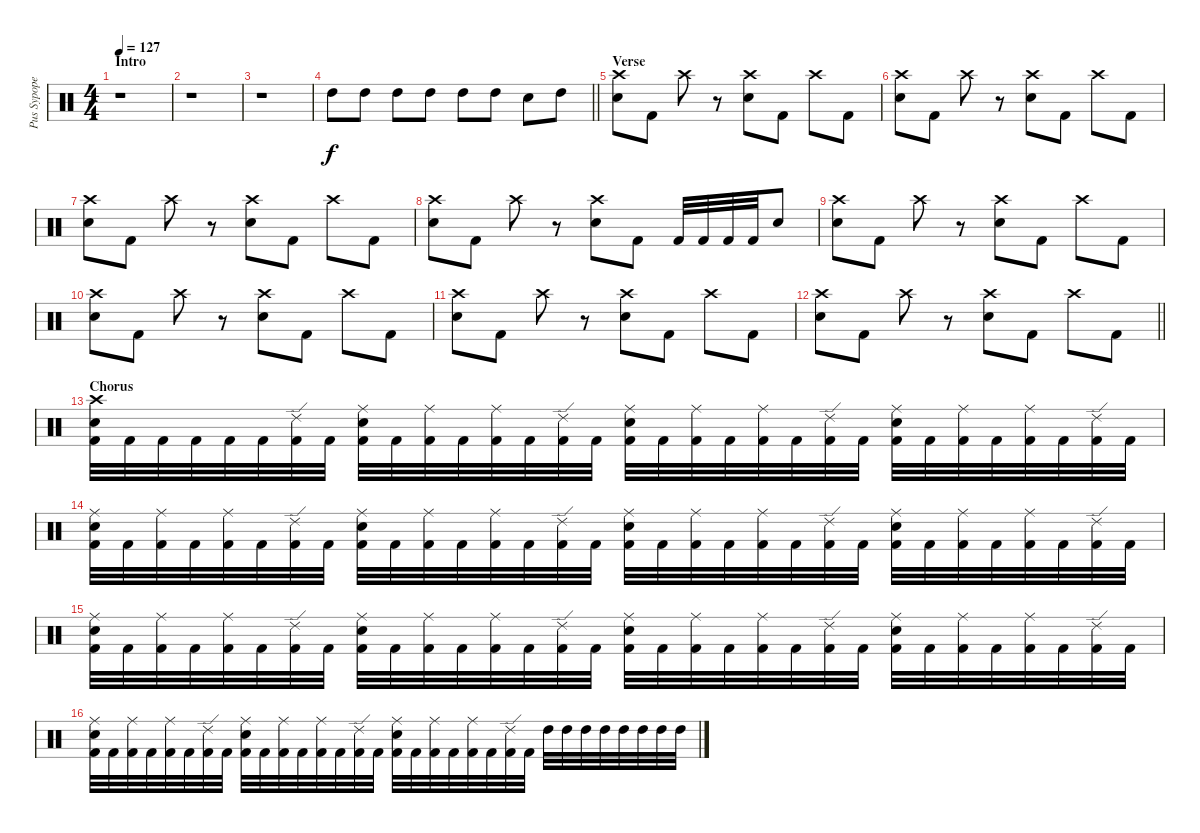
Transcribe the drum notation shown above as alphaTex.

\track ("Pus Sypope" "Pus Sypope") {instrument percussion}
\staff {score}
\articulation defaults
\ts (4 4)
\section ("" "Intro")
\tempo 127
\clef neutral
\ks c
r.1{dy f} |
r.1 |
r.1{volume 0} |
\barLineRight lightlight "High Tom (hit)".8{volume 13} "High Tom (hit)".8 "High Tom (hit)".8 "High Tom (hit)".8 "High Tom (hit)".8 "High Tom (hit)".8 "Snare (hit) 2".8 "High Tom (hit)".8
|
\section ("" "Verse")
("Crash high (hit)" "Electric Snare (hit)").8 "Kick (hit) 2".8 "Crash high (hit)".8 r.8 ("Crash high (hit)" "Electric Snare (hit)").8 "Kick (hit) 2".8 "Crash high (hit)".8 "Kick (hit) 2".8 |
("Crash high (hit)" "Electric Snare (hit)").8 "Kick (hit) 2".8 "Crash high (hit)".8 r.8 ("Crash high (hit)" "Electric Snare (hit)").8 "Kick (hit) 2".8 "Crash high (hit)".8 "Kick (hit) 2".8 |
("Crash high (hit)" "Electric Snare (hit)").8 "Kick (hit) 2".8 "Crash high (hit)".8 r.8 ("Crash high (hit)" "Electric Snare (hit)").8 "Kick (hit) 2".8 "Crash high (hit)".8 "Kick (hit) 2".8 |
("Crash high (hit)" "Electric Snare (hit)").8 "Kick (hit) 2".8 "Crash high (hit)".8 r.8 ("Crash high (hit)" "Electric Snare (hit)").8 "Kick (hit) 2".8 "Kick (hit) 2".32 "Kick (hit) 2".32 "Kick (hit) 2".32 "Kick (hit) 2".32 "Snare (hit) 2".8 |
("Crash high (hit)" "Electric Snare (hit)").8 "Kick (hit) 2".8 "Crash high (hit)".8 r.8 ("Crash high (hit)" "Electric Snare (hit)").8 "Kick (hit) 2".8 "Crash high (hit)".8 "Kick (hit) 2".8 |
("Crash high (hit)" "Electric Snare (hit)").8 "Kick (hit) 2".8 "Crash high (hit)".8 r.8 ("Crash high (hit)" "Electric Snare (hit)").8 "Kick (hit) 2".8 "Crash high (hit)".8 "Kick (hit) 2".8 |
("Crash high (hit)" "Electric Snare (hit)").8 "Kick (hit) 2".8 "Crash high (hit)".8 r.8 ("Crash high (hit)" "Electric Snare (hit)").8 "Kick (hit) 2".8 "Crash high (hit)".8 "Kick (hit) 2".8 |
\barLineRight lightlight
("Crash high (hit)" "Electric Snare (hit)").8 "Kick (hit) 2".8 "Crash high (hit)".8 r.8 ("Crash high (hit)" "Electric Snare (hit)").8 "Kick (hit) 2".8 "Crash high (hit)".8 "Kick (hit) 2".8 |
\section ("" "Chorus")
("Crash high (hit)" "Electric Snare (hit)" "Kick (hit) 2").32 "Kick (hit) 2".32 "Kick (hit) 2".32 "Kick (hit) 2".32 "Kick (hit) 2".32 "Kick (hit) 2".32 ("Ride (edge) 2" "Kick (hit) 2").32 "Kick (hit) 2".32 ("Ride (middle)" "Electric Snare (hit)" "Kick (hit) 2").32 "Kick (hit) 2".32 ("Ride (middle)" "Kick (hit) 2").32 "Kick (hit) 2".32 ("Ride (middle)" "Kick (hit) 2").32 "Kick (hit) 2".32 ("Ride (edge) 2" "Kick (hit) 2").32 "Kick (hit) 2".32 ("Ride (middle)" "Electric Snare (hit)" "Kick (hit) 2").32 "Kick (hit) 2".32 ("Ride (middle)" "Kick (hit) 2").32 "Kick (hit) 2".32 ("Ride (middle)" "Kick (hit) 2").32 "Kick (hit) 2".32 ("Ride (edge) 2" "Kick (hit) 2").32 "Kick (hit) 2".32 ("Ride (middle)" "Electric Snare (hit)" "Kick (hit) 2").32 "Kick (hit) 2".32 ("Ride (middle)" "Kick (hit) 2").32 "Kick (hit) 2".32 ("Ride (middle)" "Kick (hit) 2").32 "Kick (hit) 2".32 ("Ride (edge) 2" "Kick (hit) 2").32 "Kick (hit) 2".32 |
("Ride (middle)" "Electric Snare (hit)" "Kick (hit) 2").32 "Kick (hit) 2".32 ("Ride (middle)" "Kick (hit) 2").32 "Kick (hit) 2".32 ("Ride (middle)" "Kick (hit) 2").32 "Kick (hit) 2".32 ("Ride (edge) 2" "Kick (hit) 2").32 "Kick (hit) 2".32 ("Ride (middle)" "Electric Snare (hit)" "Kick (hit) 2").32 "Kick (hit) 2".32 ("Ride (middle)" "Kick (hit) 2").32 "Kick (hit) 2".32 ("Ride (middle)" "Kick (hit) 2").32 "Kick (hit) 2".32 ("Ride (edge) 2" "Kick (hit) 2").32 "Kick (hit) 2".32 ("Ride (middle)" "Electric Snare (hit)" "Kick (hit) 2").32 "Kick (hit) 2".32 ("Ride (middle)" "Kick (hit) 2").32 "Kick (hit) 2".32 ("Ride (middle)" "Kick (hit) 2").32 "Kick (hit) 2".32 ("Ride (edge) 2" "Kick (hit) 2").32 "Kick (hit) 2".32 ("Ride (middle)" "Electric Snare (hit)" "Kick (hit) 2").32 "Kick (hit) 2".32 ("Ride (middle)" "Kick (hit) 2").32 "Kick (hit) 2".32 ("Ride (middle)" "Kick (hit) 2").32 "Kick (hit) 2".32 ("Ride (edge) 2" "Kick (hit) 2").32 "Kick (hit) 2".32 |
("Ride (middle)" "Electric Snare (hit)" "Kick (hit) 2").32 "Kick (hit) 2".32 ("Ride (middle)" "Kick (hit) 2").32 "Kick (hit) 2".32 ("Ride (middle)" "Kick (hit) 2").32 "Kick (hit) 2".32 ("Ride (edge) 2" "Kick (hit) 2").32 "Kick (hit) 2".32 ("Ride (middle)" "Electric Snare (hit)" "Kick (hit) 2").32 "Kick (hit) 2".32 ("Ride (middle)" "Kick (hit) 2").32 "Kick (hit) 2".32 ("Ride (middle)" "Kick (hit) 2").32 "Kick (hit) 2".32 ("Ride (edge) 2" "Kick (hit) 2").32 "Kick (hit) 2".32 ("Ride (middle)" "Electric Snare (hit)" "Kick (hit) 2").32 "Kick (hit) 2".32 ("Ride (middle)" "Kick (hit) 2").32 "Kick (hit) 2".32 ("Ride (middle)" "Kick (hit) 2").32 "Kick (hit) 2".32 ("Ride (edge) 2" "Kick (hit) 2").32 "Kick (hit) 2".32 ("Ride (middle)" "Electric Snare (hit)" "Kick (hit) 2").32 "Kick (hit) 2".32 ("Ride (middle)" "Kick (hit) 2").32 "Kick (hit) 2".32 ("Ride (middle)" "Kick (hit) 2").32 "Kick (hit) 2".32 ("Ride (edge) 2" "Kick (hit) 2").32 "Kick (hit) 2".32 |
("Ride (middle)" "Electric Snare (hit)" "Kick (hit) 2").32 "Kick (hit) 2".32 ("Ride (middle)" "Kick (hit) 2").32 "Kick (hit) 2".32 ("Ride (middle)" "Kick (hit) 2").32 "Kick (hit) 2".32 ("Ride (edge) 2" "Kick (hit) 2").32 "Kick (hit) 2".32 ("Ride (middle)" "Electric Snare (hit)" "Kick (hit) 2").32 "Kick (hit) 2".32 ("Ride (middle)" "Kick (hit) 2").32 "Kick (hit) 2".32 ("Ride (middle)" "Kick (hit) 2").32 "Kick (hit) 2".32 ("Ride (edge) 2" "Kick (hit) 2").32 "Kick (hit) 2".32 ("Ride (middle)" "Electric Snare (hit)" "Kick (hit) 2").32 "Kick (hit) 2".32 ("Ride (middle)" "Kick (hit) 2").32 "Kick (hit) 2".32 ("Ride (middle)" "Kick (hit) 2").32 "Kick (hit) 2".32 ("Ride (edge) 2" "Kick (hit) 2").32 "Kick (hit) 2".32 "High Tom (hit)".32 "High Tom (hit)".32 "High Tom (hit)".32 "High Tom (hit)".32 "High Tom (hit)".32 "High Tom (hit)".32 "High Tom (hit)".32 "High Tom (hit)".32
